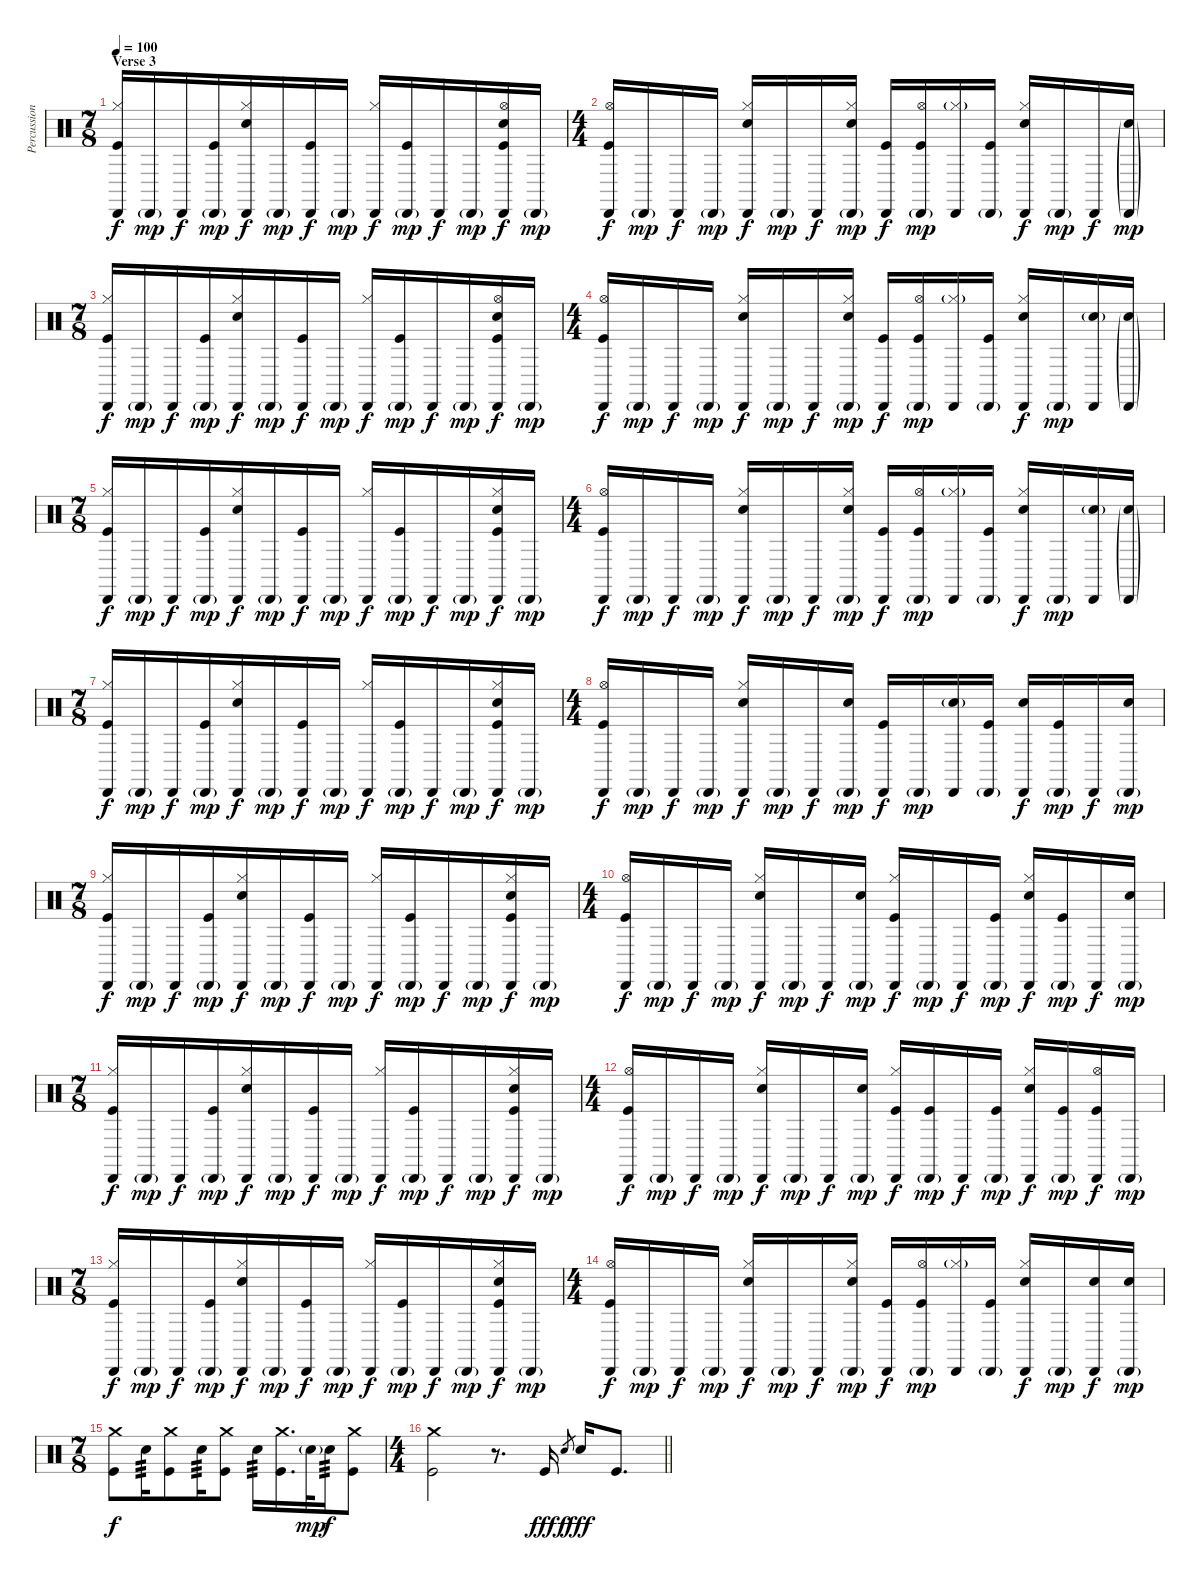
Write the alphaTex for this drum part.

\track ("Percussion" "Percussion") {instrument percussion}
\staff {score}
\articulation defaults
\ts (7 8)
\section ("" "Verse 3")
\tempo 100
\clef neutral
\ks c
("Cabasa (hit)" "Hi-Hat (closed)" "Kick (hit)").16{dy f} "Cabasa (hit)"{g}.16{dy mp} "Cabasa (hit)".16{dy f} ("Cabasa (hit)"{g} "Kick (hit)").16{dy mp} ("Cabasa (hit)" "Hi-Hat (closed)" "Snare (hit) 2").16{dy f} "Cabasa (hit)"{g}.16{dy mp} ("Cabasa (hit)" "Kick (hit)").16{dy f} "Cabasa (hit)"{g}.16{dy mp} ("Cabasa (hit)" "Hi-Hat (closed)").16{dy f} ("Cabasa (hit)"{g} "Kick (hit)").16{dy mp} "Cabasa (hit)".16{dy f} "Cabasa (hit)"{g}.16{dy mp} ("Cabasa (hit)" "Hi-Hat (open)" "Snare (hit) 2" "Kick (hit)").16{dy f} "Cabasa (hit)"{g}.16{dy mp} |
\ts (4 4)
("Cabasa (hit)" "Hi-Hat (open)" "Kick (hit)").16{dy f} "Cabasa (hit)"{g}.16{dy mp} "Cabasa (hit)".16{dy f} "Cabasa (hit)"{g}.16{dy mp} ("Cabasa (hit)" "Hi-Hat (closed)" "Snare (hit) 2").16{dy f} "Cabasa (hit)"{g}.16{dy mp} "Cabasa (hit)".16{dy f} ("Cabasa (hit)"{g} "Hi-Hat (closed)" "Snare (hit) 2").16{dy mp} ("Cabasa (hit)" "Kick (hit)").16{dy f} ("Cabasa (hit)"{g} "Hi-Hat (open)" "Kick (hit)").16{dy mp} ("Cabasa (hit)" "Hi-Hat (closed)"{g}).16 ("Cabasa (hit)"{g} "Kick (hit)").16 ("Cabasa (hit)" "Hi-Hat (closed)" "Snare (hit) 2").16{dy f} "Cabasa (hit)"{g}.16{dy mp} "Cabasa (hit)".16{dy f} ("Cabasa (hit)"{g} "Snare (hit) 2"{g}).16{dy mp} |
\ts (7 8)
("Cabasa (hit)" "Hi-Hat (closed)" "Kick (hit)").16{dy f} "Cabasa (hit)"{g}.16{dy mp} "Cabasa (hit)".16{dy f} ("Cabasa (hit)"{g} "Kick (hit)").16{dy mp} ("Cabasa (hit)" "Hi-Hat (closed)" "Snare (hit) 2").16{dy f} "Cabasa (hit)"{g}.16{dy mp} ("Cabasa (hit)" "Kick (hit)").16{dy f} "Cabasa (hit)"{g}.16{dy mp} ("Cabasa (hit)" "Hi-Hat (closed)").16{dy f} ("Cabasa (hit)"{g} "Kick (hit)").16{dy mp} "Cabasa (hit)".16{dy f} "Cabasa (hit)"{g}.16{dy mp} ("Cabasa (hit)" "Hi-Hat (open)" "Snare (hit) 2" "Kick (hit)").16{dy f} "Cabasa (hit)"{g}.16{dy mp} |
\ts (4 4)
("Cabasa (hit)" "Hi-Hat (open)" "Kick (hit)").16{dy f} "Cabasa (hit)"{g}.16{dy mp} "Cabasa (hit)".16{dy f} "Cabasa (hit)"{g}.16{dy mp} ("Cabasa (hit)" "Hi-Hat (closed)" "Snare (hit) 2").16{dy f} "Cabasa (hit)"{g}.16{dy mp} "Cabasa (hit)".16{dy f} ("Cabasa (hit)"{g} "Hi-Hat (closed)" "Snare (hit) 2").16{dy mp} ("Cabasa (hit)" "Kick (hit)").16{dy f} ("Cabasa (hit)"{g} "Hi-Hat (open)" "Kick (hit)").16{dy mp} ("Cabasa (hit)" "Hi-Hat (closed)"{g}).16 ("Cabasa (hit)"{g} "Kick (hit)").16 ("Cabasa (hit)" "Hi-Hat (closed)" "Snare (hit) 2").16{dy f} "Cabasa (hit)"{g}.16{dy mp} ("Cabasa (hit)" "Snare (hit) 2"{g}).16 ("Cabasa (hit)"{g} "Snare (hit) 2"{g}).16 |
\ts (7 8)
("Cabasa (hit)" "Hi-Hat (closed)" "Kick (hit)").16{dy f} "Cabasa (hit)"{g}.16{dy mp} "Cabasa (hit)".16{dy f} ("Cabasa (hit)"{g} "Kick (hit)").16{dy mp} ("Cabasa (hit)" "Hi-Hat (closed)" "Snare (hit) 2").16{dy f} "Cabasa (hit)"{g}.16{dy mp} ("Cabasa (hit)" "Kick (hit)").16{dy f} "Cabasa (hit)"{g}.16{dy mp} ("Cabasa (hit)" "Hi-Hat (closed)").16{dy f} ("Cabasa (hit)"{g} "Kick (hit)").16{dy mp} "Cabasa (hit)".16{dy f} "Cabasa (hit)"{g}.16{dy mp} ("Cabasa (hit)" "Hi-Hat (closed)" "Snare (hit) 2" "Kick (hit)").16{dy f} "Cabasa (hit)"{g}.16{dy mp} |
\ts (4 4)
("Cabasa (hit)" "Hi-Hat (open)" "Kick (hit)").16{dy f} "Cabasa (hit)"{g}.16{dy mp} "Cabasa (hit)".16{dy f} "Cabasa (hit)"{g}.16{dy mp} ("Cabasa (hit)" "Hi-Hat (closed)" "Snare (hit) 2").16{dy f} "Cabasa (hit)"{g}.16{dy mp} "Cabasa (hit)".16{dy f} ("Cabasa (hit)"{g} "Hi-Hat (closed)" "Snare (hit) 2").16{dy mp} ("Cabasa (hit)" "Kick (hit)").16{dy f} ("Cabasa (hit)"{g} "Hi-Hat (open)" "Kick (hit)").16{dy mp} ("Cabasa (hit)" "Hi-Hat (closed)"{g}).16 ("Cabasa (hit)"{g} "Kick (hit)").16 ("Cabasa (hit)" "Hi-Hat (closed)" "Snare (hit) 2").16{dy f} "Cabasa (hit)"{g}.16{dy mp} ("Cabasa (hit)" "Snare (hit) 2"{g}).16 ("Cabasa (hit)"{g} "Snare (hit) 2"{g}).16 |
\ts (7 8)
("Cabasa (hit)" "Hi-Hat (closed)" "Kick (hit)").16{dy f} "Cabasa (hit)"{g}.16{dy mp} "Cabasa (hit)".16{dy f} ("Cabasa (hit)"{g} "Kick (hit)").16{dy mp} ("Cabasa (hit)" "Hi-Hat (closed)" "Snare (hit) 2").16{dy f} "Cabasa (hit)"{g}.16{dy mp} ("Cabasa (hit)" "Kick (hit)").16{dy f} "Cabasa (hit)"{g}.16{dy mp} ("Cabasa (hit)" "Hi-Hat (closed)").16{dy f} ("Cabasa (hit)"{g} "Kick (hit)").16{dy mp} "Cabasa (hit)".16{dy f} "Cabasa (hit)"{g}.16{dy mp} ("Cabasa (hit)" "Hi-Hat (closed)" "Snare (hit) 2" "Kick (hit)").16{dy f} "Cabasa (hit)"{g}.16{dy mp} |
\ts (4 4)
("Cabasa (hit)" "Hi-Hat (open)" "Kick (hit)").16{dy f} "Cabasa (hit)"{g}.16{dy mp} "Cabasa (hit)".16{dy f} "Cabasa (hit)"{g}.16{dy mp} ("Cabasa (hit)" "Hi-Hat (closed)" "Snare (hit) 2").16{dy f} "Cabasa (hit)"{g}.16{dy mp} "Cabasa (hit)".16{dy f} ("Cabasa (hit)"{g} "Snare (hit) 2").16{dy mp} ("Cabasa (hit)" "Kick (hit)").16{dy f} "Cabasa (hit)"{g}.16{dy mp} ("Cabasa (hit)" "Snare (hit) 2"{g}).16 ("Cabasa (hit)"{g} "Kick (hit)").16 ("Cabasa (hit)" "Snare (hit) 2").16{dy f} ("Cabasa (hit)"{g} "Kick (hit)").16{dy mp} "Cabasa (hit)".16{dy f} ("Cabasa (hit)"{g} "Snare (hit) 2").16{dy mp} |
\ts (7 8)
("Cabasa (hit)" "Hi-Hat (closed)" "Kick (hit)").16{dy f} "Cabasa (hit)"{g}.16{dy mp} "Cabasa (hit)".16{dy f} ("Cabasa (hit)"{g} "Kick (hit)").16{dy mp} ("Cabasa (hit)" "Hi-Hat (closed)" "Snare (hit) 2").16{dy f} "Cabasa (hit)"{g}.16{dy mp} ("Cabasa (hit)" "Kick (hit)").16{dy f} "Cabasa (hit)"{g}.16{dy mp} ("Cabasa (hit)" "Hi-Hat (closed)").16{dy f} ("Cabasa (hit)"{g} "Kick (hit)").16{dy mp} "Cabasa (hit)".16{dy f} "Cabasa (hit)"{g}.16{dy mp} ("Cabasa (hit)" "Hi-Hat (closed)" "Snare (hit) 2" "Kick (hit)").16{dy f} "Cabasa (hit)"{g}.16{dy mp} |
\ts (4 4)
("Cabasa (hit)" "Hi-Hat (open)" "Kick (hit)").16{dy f} "Cabasa (hit)"{g}.16{dy mp} "Cabasa (hit)".16{dy f} "Cabasa (hit)"{g}.16{dy mp} ("Cabasa (hit)" "Hi-Hat (closed)" "Snare (hit) 2").16{dy f} "Cabasa (hit)"{g}.16{dy mp} "Cabasa (hit)".16{dy f} ("Cabasa (hit)"{g} "Snare (hit) 2").16{dy mp} ("Cabasa (hit)" "Hi-Hat (closed)" "Kick (hit)").16{dy f} "Cabasa (hit)"{g}.16{dy mp} "Cabasa (hit)".16{dy f} ("Cabasa (hit)"{g} "Kick (hit)").16{dy mp} ("Cabasa (hit)" "Hi-Hat (closed)" "Snare (hit) 2").16{dy f} ("Cabasa (hit)"{g} "Kick (hit)").16{dy mp} "Cabasa (hit)".16{dy f} ("Cabasa (hit)"{g} "Snare (hit) 2").16{dy mp} |
\ts (7 8)
("Cabasa (hit)" "Hi-Hat (closed)" "Kick (hit)").16{dy f} "Cabasa (hit)"{g}.16{dy mp} "Cabasa (hit)".16{dy f} ("Cabasa (hit)"{g} "Kick (hit)").16{dy mp} ("Cabasa (hit)" "Hi-Hat (closed)" "Snare (hit) 2").16{dy f} "Cabasa (hit)"{g}.16{dy mp} ("Cabasa (hit)" "Kick (hit)").16{dy f} "Cabasa (hit)"{g}.16{dy mp} ("Cabasa (hit)" "Hi-Hat (closed)").16{dy f} ("Cabasa (hit)"{g} "Kick (hit)").16{dy mp} "Cabasa (hit)".16{dy f} "Cabasa (hit)"{g}.16{dy mp} ("Cabasa (hit)" "Hi-Hat (closed)" "Snare (hit) 2" "Kick (hit)").16{dy f} "Cabasa (hit)"{g}.16{dy mp} |
\ts (4 4)
("Cabasa (hit)" "Hi-Hat (open)" "Kick (hit)").16{dy f} "Cabasa (hit)"{g}.16{dy mp} "Cabasa (hit)".16{dy f} "Cabasa (hit)"{g}.16{dy mp} ("Cabasa (hit)" "Hi-Hat (closed)" "Snare (hit) 2").16{dy f} "Cabasa (hit)"{g}.16{dy mp} "Cabasa (hit)".16{dy f} ("Cabasa (hit)"{g} "Snare (hit) 2").16{dy mp} ("Cabasa (hit)" "Hi-Hat (closed)" "Kick (hit)").16{dy f} ("Cabasa (hit)"{g} "Kick (hit)").16{dy mp} "Cabasa (hit)".16{dy f} ("Cabasa (hit)"{g} "Kick (hit)").16{dy mp} ("Cabasa (hit)" "Hi-Hat (closed)" "Snare (hit) 2").16{dy f} ("Cabasa (hit)"{g} "Kick (hit)").16{dy mp} ("Cabasa (hit)" "Hi-Hat (open)" "Kick (hit)").16{dy f} "Cabasa (hit)"{g}.16{dy mp} |
\ts (7 8)
("Cabasa (hit)" "Hi-Hat (closed)" "Kick (hit)").16{dy f} "Cabasa (hit)"{g}.16{dy mp} "Cabasa (hit)".16{dy f} ("Cabasa (hit)"{g} "Kick (hit)").16{dy mp} ("Cabasa (hit)" "Hi-Hat (closed)" "Snare (hit) 2").16{dy f} "Cabasa (hit)"{g}.16{dy mp} ("Cabasa (hit)" "Kick (hit)").16{dy f} "Cabasa (hit)"{g}.16{dy mp} ("Cabasa (hit)" "Hi-Hat (closed)").16{dy f} ("Cabasa (hit)"{g} "Kick (hit)").16{dy mp} "Cabasa (hit)".16{dy f} "Cabasa (hit)"{g}.16{dy mp} ("Cabasa (hit)" "Hi-Hat (closed)" "Snare (hit) 2" "Kick (hit)").16{dy f} "Cabasa (hit)"{g}.16{dy mp} |
\ts (4 4)
("Cabasa (hit)" "Hi-Hat (open)" "Kick (hit)").16{dy f} "Cabasa (hit)"{g}.16{dy mp} "Cabasa (hit)".16{dy f} "Cabasa (hit)"{g}.16{dy mp} ("Cabasa (hit)" "Hi-Hat (closed)" "Snare (hit) 2").16{dy f} "Cabasa (hit)"{g}.16{dy mp} "Cabasa (hit)".16{dy f} ("Cabasa (hit)"{g} "Hi-Hat (closed)" "Snare (hit) 2").16{dy mp} ("Cabasa (hit)" "Kick (hit)").16{dy f} ("Cabasa (hit)"{g} "Hi-Hat (open)" "Kick (hit)").16{dy mp} ("Cabasa (hit)" "Hi-Hat (closed)"{g}).16 ("Cabasa (hit)"{g} "Kick (hit)").16 ("Cabasa (hit)" "Hi-Hat (closed)" "Snare (hit) 2").16{dy f} "Cabasa (hit)"{g}.16{dy mp} ("Cabasa (hit)" "Snare (hit) 2").16{dy f} ("Cabasa (hit)"{g} "Snare (hit) 2").16{dy mp} |
\ts (7 8)
("Crash medium (hit)" "Kick (hit)").8{dy f} "Snare (hit) 2".16{tp 3} ("Crash medium (hit)" "Kick (hit)").8 "Snare (hit) 2".16{tp 3} ("Crash medium (hit)" "Kick (hit)").8 "Snare (hit) 2".16{tp 3} ("Crash medium (hit)" "Kick (hit)").16{d} "Snare (hit) 2"{g}.32{dy mp} "Snare (hit) 2".16{tp 3 dy f} ("Crash medium (hit)" "Kick (hit)").8 |
\ts (4 4)
\barLineRight lightlight
("Crash medium (hit)" "Kick (hit)").2 r.8{d} "Kick (hit)".16{dy fff} "Snare (hit) 2".8{gr dy f} "Snare (hit) 2".16{dy fff} "Kick (hit)".8{d}
